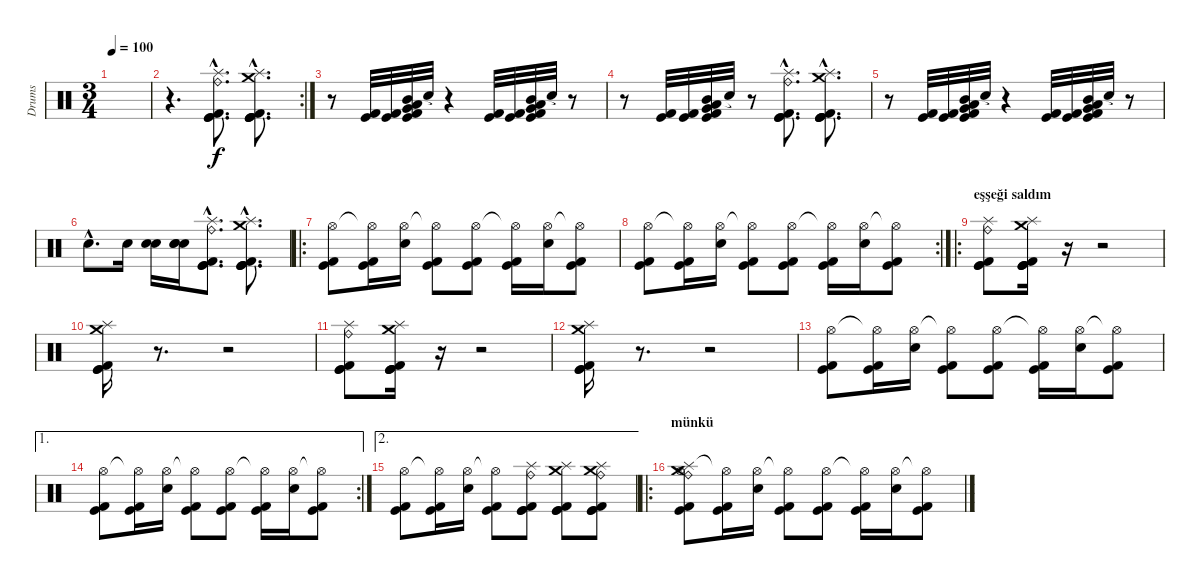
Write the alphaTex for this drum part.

\track ("Drums" "Drums") {instrument percussion}
\staff {score}
\articulation defaults
\ts (3 4)
\tempo 100
\clef neutral
\ks c
|
\rc 2
r.4{d} ("Splash (hit)"{hac} "Ride (bell)"{hac} "Kick (hit) 2"{hac} "Kick (hit)"{hac} "Kick (hit)"{hac}).8{d} ("Crash medium (hit)"{hac} "Splash (hit)"{hac} "Kick (hit) 2"{hac} "Kick (hit)"{hac} "Kick (hit)"{hac} "Kick (hit)"{hac}).8{d} |
r.8 ("Kick (hit)" "Kick (hit) 2").32 ("Kick (hit)" "Kick (hit) 2").32 ("Mid Tom (hit)" "Low Tom (hit)" "Very Low Tom (hit)" "Kick (hit)" "Kick (hit) 2").32 "Snare (hit)"{t}.32 r.4 ("Kick (hit)" "Kick (hit) 2").32 ("Kick (hit)" "Kick (hit) 2").32 ("Mid Tom (hit)" "Low Tom (hit)" "Very Low Tom (hit)" "Kick (hit)" "Kick (hit) 2").32 "Snare (hit)"{t}.32 r.8 |
r.8 ("Kick (hit)" "Kick (hit) 2").32 ("Kick (hit)" "Kick (hit) 2").32 ("Mid Tom (hit)" "Low Tom (hit)" "Very Low Tom (hit)" "Kick (hit)" "Kick (hit) 2").32 "Snare (hit)"{t}.32 r.8 ("Splash (hit)"{hac} "Ride (bell)"{hac} "Kick (hit) 2"{hac} "Kick (hit)"{hac} "Kick (hit)"{hac}).8{d} ("Crash medium (hit)"{hac} "Splash (hit)"{hac} "Kick (hit) 2"{hac} "Kick (hit)"{hac} "Kick (hit)"{hac} "Kick (hit)"{hac}).8{d} |
r.8 ("Kick (hit)" "Kick (hit) 2").32 ("Kick (hit)" "Kick (hit) 2").32 ("Mid Tom (hit)" "Low Tom (hit)" "Very Low Tom (hit)" "Kick (hit)" "Kick (hit) 2").32 "Snare (hit)"{t}.32 r.4 ("Kick (hit)" "Kick (hit) 2").32 ("Kick (hit)" "Kick (hit) 2").32 ("Mid Tom (hit)" "Low Tom (hit)" "Very Low Tom (hit)" "Kick (hit)" "Kick (hit) 2").32 "Snare (hit)"{t}.32 r.8 |
"Snare (hit) 2"{hac}.8{d} "Snare (hit) 2".16 ("Electric Snare (hit)" "Snare (hit) 2").16 ("Electric Snare (hit)" "Electric Snare (hit)" "Snare (hit) 2").16 ("Splash (hit)"{hac} "Ride (bell)"{hac} "Kick (hit) 2"{hac} "Kick (hit)"{hac} "Kick (hit)"{hac}).8{d} ("Crash medium (hit)"{hac} "Splash (hit)"{hac} "Kick (hit) 2"{hac} "Kick (hit)"{hac} "Kick (hit)"{hac} "Kick (hit)"{hac}).8{d} |
\ro
("Hi-Hat (open)" "Kick (hit)" "Kick (hit) 2").8 ("Hi-Hat (open)"{t} "Kick (hit)" "Kick (hit) 2").16 ("Hi-Hat (open)" "Snare (hit) 2").16 ("Hi-Hat (open)"{t} "Kick (hit)" "Kick (hit) 2").8 ("Hi-Hat (open)" "Kick (hit)" "Kick (hit) 2").8 ("Hi-Hat (open)"{t} "Kick (hit)" "Kick (hit) 2").16 ("Hi-Hat (open)" "Snare (hit) 2").16 ("Hi-Hat (open)"{t} "Kick (hit)" "Kick (hit) 2").8 |
\rc 2
("Hi-Hat (open)" "Kick (hit)" "Kick (hit) 2").8 ("Hi-Hat (open)"{t} "Kick (hit)" "Kick (hit) 2").16 ("Hi-Hat (open)" "Snare (hit) 2").16 ("Hi-Hat (open)"{t} "Kick (hit)" "Kick (hit) 2").8 ("Hi-Hat (open)" "Kick (hit)" "Kick (hit) 2").8 ("Hi-Hat (open)"{t} "Kick (hit)" "Kick (hit) 2").16 ("Hi-Hat (open)" "Snare (hit) 2").16 ("Hi-Hat (open)"{t} "Kick (hit)" "Kick (hit) 2").8 |
\ro
\section ("" "eşşeği saldım")
("Splash (hit)" "Ride (bell)" "Kick (hit) 2" "Kick (hit)" "Kick (hit)").8 ("Crash medium (hit)" "Splash (hit)" "Kick (hit) 2" "Kick (hit)" "Kick (hit)" "Kick (hit)").16 r.16 r.2 |
("Splash (hit)" "Crash medium (hit)" "Kick (hit) 2" "Kick (hit)" "Kick (hit)").16 r.8{d} r.2 |
("Splash (hit)" "Ride (bell)" "Kick (hit) 2" "Kick (hit)" "Kick (hit)").8 ("Crash medium (hit)" "Splash (hit)" "Kick (hit) 2" "Kick (hit)" "Kick (hit)" "Kick (hit)").16 r.16 r.2 |
("Splash (hit)" "Crash medium (hit)" "Kick (hit) 2" "Kick (hit)" "Kick (hit)").16 r.8{d} r.2 |
("Hi-Hat (open)" "Kick (hit)" "Kick (hit) 2").8 ("Hi-Hat (open)"{t} "Kick (hit)" "Kick (hit) 2").16 ("Hi-Hat (open)" "Snare (hit) 2").16 ("Hi-Hat (open)"{t} "Kick (hit)" "Kick (hit) 2").8 ("Hi-Hat (open)" "Kick (hit)" "Kick (hit) 2").8 ("Hi-Hat (open)"{t} "Kick (hit)" "Kick (hit) 2").16 ("Hi-Hat (open)" "Snare (hit) 2").16 ("Hi-Hat (open)"{t} "Kick (hit)" "Kick (hit) 2").8 |
\ae 1
\rc 2
("Hi-Hat (open)" "Kick (hit)" "Kick (hit) 2").8 ("Hi-Hat (open)"{t} "Kick (hit)" "Kick (hit) 2").16 ("Hi-Hat (open)" "Snare (hit) 2").16 ("Hi-Hat (open)"{t} "Kick (hit)" "Kick (hit) 2").8 ("Hi-Hat (open)" "Kick (hit)" "Kick (hit) 2").8 ("Hi-Hat (open)"{t} "Kick (hit)" "Kick (hit) 2").16 ("Hi-Hat (open)" "Snare (hit) 2").16 ("Hi-Hat (open)"{t} "Kick (hit)" "Kick (hit) 2").8 |
\ae 2
("Hi-Hat (open)" "Kick (hit)" "Kick (hit) 2").8 ("Hi-Hat (open)"{t} "Kick (hit)" "Kick (hit) 2").16 ("Hi-Hat (open)" "Snare (hit) 2").16 ("Hi-Hat (open)"{t} "Kick (hit)" "Kick (hit) 2").8 ("Splash (hit)" "Ride (bell)" "Kick (hit)" "Kick (hit)" "Kick (hit) 2").8 ("Crash medium (hit)" "Splash (hit)" "Kick (hit)" "Kick (hit)" "Kick (hit) 2").8 ("Crash medium (hit)" "Ride (bell)" "Splash (hit)" "Kick (hit)" "Kick (hit)" "Kick (hit) 2").8 |
\ro
\section ("" "münkü")
("Splash (hit)" "Crash medium (hit)" "Hi-Hat (open)" "Kick (hit)" "Kick (hit) 2" "Ride (bell)").8 ("Hi-Hat (open)"{t} "Kick (hit)" "Kick (hit) 2").16 ("Hi-Hat (open)" "Snare (hit) 2").16 ("Hi-Hat (open)"{t} "Kick (hit)" "Kick (hit) 2").8 ("Hi-Hat (open)" "Kick (hit)" "Kick (hit) 2").8 ("Hi-Hat (open)"{t} "Kick (hit)" "Kick (hit) 2").16 ("Hi-Hat (open)" "Snare (hit) 2").16 ("Hi-Hat (open)"{t} "Kick (hit)" "Kick (hit) 2").8
